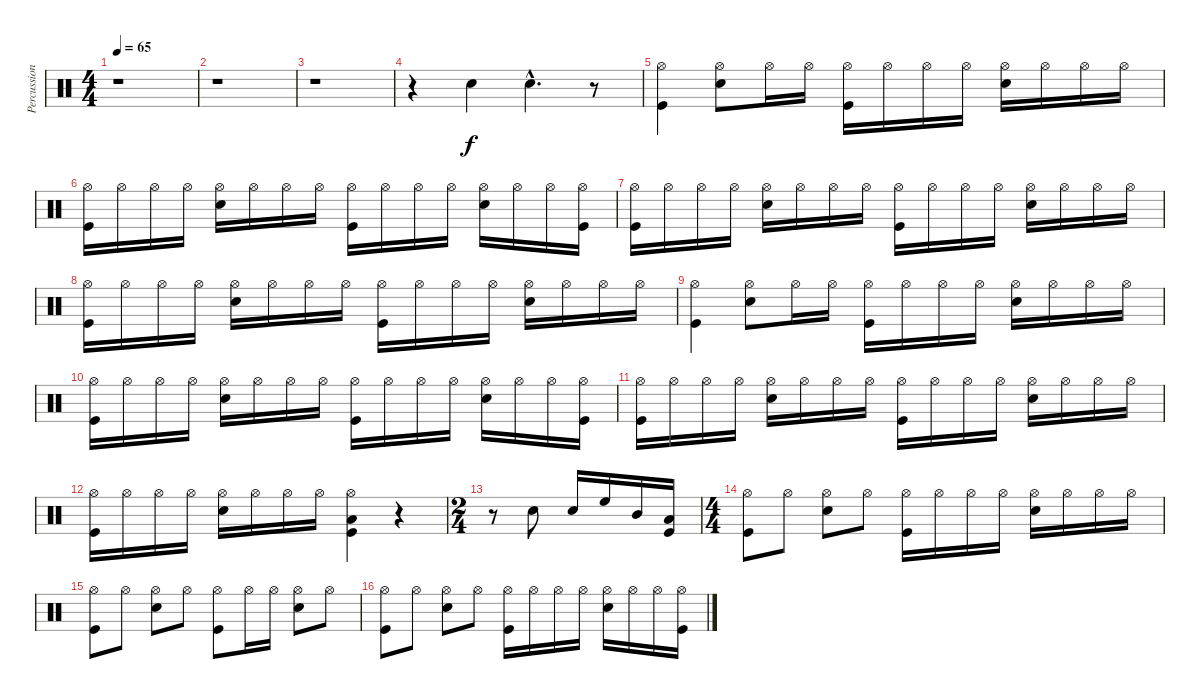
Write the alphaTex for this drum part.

\track ("Percussions" "Percussion") {instrument percussion}
\staff {score}
\articulation defaults
\ts (4 4)
\tempo 65
\clef neutral
\ks c
r.1{dy f} |
r.1 |
r.1 |
r.4 "Snare (hit) 2".4 "Snare (hit) 2"{hac}.4{d} r.8 |
("Hi-Hat (open)" "Kick (hit)").4 ("Hi-Hat (open)" "Snare (hit) 2").8 "Hi-Hat (open)".16 "Hi-Hat (open)".16 ("Hi-Hat (open)" "Kick (hit)").16 "Hi-Hat (open)".16 "Hi-Hat (open)".16 "Hi-Hat (open)".16 ("Hi-Hat (open)" "Snare (hit) 2").16 "Hi-Hat (open)".16 "Hi-Hat (open)".16 "Hi-Hat (open)".16 |
("Hi-Hat (open)" "Kick (hit)").16 "Hi-Hat (open)".16 "Hi-Hat (open)".16 "Hi-Hat (open)".16 ("Hi-Hat (open)" "Snare (hit) 2").16 "Hi-Hat (open)".16 "Hi-Hat (open)".16 "Hi-Hat (open)".16 ("Hi-Hat (open)" "Kick (hit)").16 "Hi-Hat (open)".16 "Hi-Hat (open)".16 "Hi-Hat (open)".16 ("Hi-Hat (open)" "Snare (hit) 2").16 "Hi-Hat (open)".16 "Hi-Hat (open)".16 ("Hi-Hat (open)" "Kick (hit)").16 |
("Hi-Hat (open)" "Kick (hit)").16 "Hi-Hat (open)".16 "Hi-Hat (open)".16 "Hi-Hat (open)".16 ("Hi-Hat (open)" "Snare (hit) 2").16 "Hi-Hat (open)".16 "Hi-Hat (open)".16 "Hi-Hat (open)".16 ("Hi-Hat (open)" "Kick (hit)").16 "Hi-Hat (open)".16 "Hi-Hat (open)".16 "Hi-Hat (open)".16 ("Hi-Hat (open)" "Snare (hit) 2").16 "Hi-Hat (open)".16 "Hi-Hat (open)".16 "Hi-Hat (open)".16 |
("Hi-Hat (open)" "Kick (hit)").16 "Hi-Hat (open)".16 "Hi-Hat (open)".16 "Hi-Hat (open)".16 ("Hi-Hat (open)" "Snare (hit) 2").16 "Hi-Hat (open)".16 "Hi-Hat (open)".16 "Hi-Hat (open)".16 ("Hi-Hat (open)" "Kick (hit)").16 "Hi-Hat (open)".16 "Hi-Hat (open)".16 "Hi-Hat (open)".16 ("Hi-Hat (open)" "Snare (hit) 2").16 "Hi-Hat (open)".16 "Hi-Hat (open)".16 "Hi-Hat (open)".16 |
("Hi-Hat (open)" "Kick (hit)").4 ("Hi-Hat (open)" "Snare (hit) 2").8 "Hi-Hat (open)".16 "Hi-Hat (open)".16 ("Hi-Hat (open)" "Kick (hit)").16 "Hi-Hat (open)".16 "Hi-Hat (open)".16 "Hi-Hat (open)".16 ("Hi-Hat (open)" "Snare (hit) 2").16 "Hi-Hat (open)".16 "Hi-Hat (open)".16 "Hi-Hat (open)".16 |
("Hi-Hat (open)" "Kick (hit)").16 "Hi-Hat (open)".16 "Hi-Hat (open)".16 "Hi-Hat (open)".16 ("Hi-Hat (open)" "Snare (hit) 2").16 "Hi-Hat (open)".16 "Hi-Hat (open)".16 "Hi-Hat (open)".16 ("Hi-Hat (open)" "Kick (hit)").16 "Hi-Hat (open)".16 "Hi-Hat (open)".16 "Hi-Hat (open)".16 ("Hi-Hat (open)" "Snare (hit) 2").16 "Hi-Hat (open)".16 "Hi-Hat (open)".16 ("Hi-Hat (open)" "Kick (hit)").16 |
("Hi-Hat (open)" "Kick (hit)").16 "Hi-Hat (open)".16 "Hi-Hat (open)".16 "Hi-Hat (open)".16 ("Hi-Hat (open)" "Snare (hit) 2").16 "Hi-Hat (open)".16 "Hi-Hat (open)".16 "Hi-Hat (open)".16 ("Hi-Hat (open)" "Kick (hit)").16 "Hi-Hat (open)".16 "Hi-Hat (open)".16 "Hi-Hat (open)".16 ("Hi-Hat (open)" "Snare (hit) 2").16 "Hi-Hat (open)".16 "Hi-Hat (open)".16 "Hi-Hat (open)".16 |
("Hi-Hat (open)" "Kick (hit)").16 "Hi-Hat (open)".16 "Hi-Hat (open)".16 "Hi-Hat (open)".16 ("Hi-Hat (open)" "Snare (hit) 2").16 "Hi-Hat (open)".16 "Hi-Hat (open)".16 "Hi-Hat (open)".16 ("Hi-Hat (open)" "Kick (hit)" "Low Tom (hit)").4 r.4 |
\ts (2 4)
r.8 "Snare (hit) 2".8 "Snare (hit) 2".16 "High Floor Tom (hit)".16 "Mid Tom (hit)".16 ("Kick (hit)" "Low Tom (hit)").16 |
\ts (4 4)
("Hi-Hat (open)" "Kick (hit)").8 "Hi-Hat (open)".8 ("Hi-Hat (open)" "Snare (hit) 2").8 "Hi-Hat (open)".8 ("Hi-Hat (open)" "Kick (hit)").16 "Hi-Hat (open)".16 "Hi-Hat (open)".16 "Hi-Hat (open)".16 ("Hi-Hat (open)" "Snare (hit) 2").16 "Hi-Hat (open)".16 "Hi-Hat (open)".16 "Hi-Hat (open)".16 |
("Hi-Hat (open)" "Kick (hit)").8 "Hi-Hat (open)".8 ("Hi-Hat (open)" "Snare (hit) 2").8 "Hi-Hat (open)".8 ("Hi-Hat (open)" "Kick (hit)").8 "Hi-Hat (open)".16 "Hi-Hat (open)".16 ("Hi-Hat (open)" "Snare (hit) 2").8 "Hi-Hat (open)".8 |
("Hi-Hat (open)" "Kick (hit)").8 "Hi-Hat (open)".8 ("Hi-Hat (open)" "Snare (hit) 2").8 "Hi-Hat (open)".8 ("Hi-Hat (open)" "Kick (hit)").16 "Hi-Hat (open)".16 "Hi-Hat (open)".16 "Hi-Hat (open)".16 ("Hi-Hat (open)" "Snare (hit) 2").16 "Hi-Hat (open)".16 "Hi-Hat (open)".16 ("Hi-Hat (open)" "Kick (hit)").16
